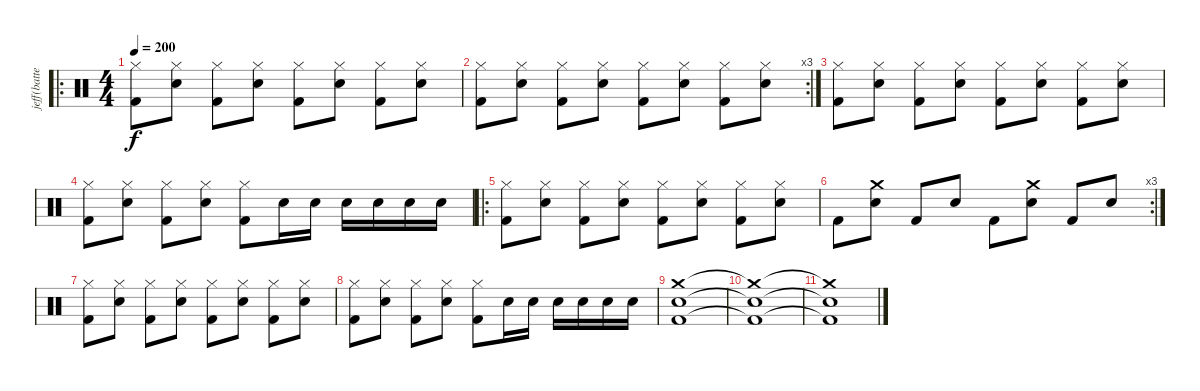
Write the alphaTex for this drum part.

\track ("jeff(batterie)" "jeff(batte") {instrument percussion}
\staff {score}
\articulation defaults
\ro
\ts (4 4)
\tempo 200
\clef neutral
\ks c
("Hi-Hat (closed)" "Kick (hit) 2").8{dy f} ("Hi-Hat (closed)" "Snare (hit) 2").8 ("Hi-Hat (closed)" "Kick (hit) 2").8 ("Hi-Hat (closed)" "Snare (hit) 2").8 ("Hi-Hat (closed)" "Kick (hit) 2").8 ("Hi-Hat (closed)" "Snare (hit) 2").8 ("Hi-Hat (closed)" "Kick (hit) 2").8 ("Hi-Hat (closed)" "Snare (hit) 2").8 |
\rc 3
("Hi-Hat (closed)" "Kick (hit) 2").8 ("Hi-Hat (closed)" "Snare (hit) 2").8 ("Hi-Hat (closed)" "Kick (hit) 2").8 ("Hi-Hat (closed)" "Snare (hit) 2").8 ("Hi-Hat (closed)" "Kick (hit) 2").8 ("Hi-Hat (closed)" "Snare (hit) 2").8 ("Hi-Hat (closed)" "Kick (hit) 2").8 ("Hi-Hat (closed)" "Snare (hit) 2").8 |
("Hi-Hat (closed)" "Kick (hit) 2").8 ("Hi-Hat (closed)" "Snare (hit) 2").8 ("Hi-Hat (closed)" "Kick (hit) 2").8 ("Hi-Hat (closed)" "Snare (hit) 2").8 ("Hi-Hat (closed)" "Kick (hit) 2").8 ("Hi-Hat (closed)" "Snare (hit) 2").8 ("Hi-Hat (closed)" "Kick (hit) 2").8 ("Hi-Hat (closed)" "Snare (hit) 2").8 |
("Hi-Hat (closed)" "Kick (hit) 2").8 ("Hi-Hat (closed)" "Snare (hit) 2").8 ("Hi-Hat (closed)" "Kick (hit) 2").8 ("Hi-Hat (closed)" "Snare (hit) 2").8 ("Hi-Hat (closed)" "Kick (hit) 2").8 "Snare (hit) 2".16 "Snare (hit) 2".16 "Snare (hit) 2".16 "Snare (hit) 2".16 "Snare (hit) 2".16 "Snare (hit) 2".16 |
\ro
("Hi-Hat (closed)" "Kick (hit) 2").8 ("Hi-Hat (closed)" "Snare (hit) 2").8 ("Hi-Hat (closed)" "Kick (hit) 2").8 ("Hi-Hat (closed)" "Snare (hit) 2").8 ("Hi-Hat (closed)" "Kick (hit) 2").8 ("Hi-Hat (closed)" "Snare (hit) 2").8 ("Hi-Hat (closed)" "Kick (hit) 2").8 ("Hi-Hat (closed)" "Snare (hit) 2").8 |
\rc 3 "Kick (hit) 2".8
("Crash medium (hit)" "Snare (hit) 2").8 "Kick (hit) 2".8 "Snare (hit) 2".8 "Kick (hit) 2".8 ("Crash medium (hit)" "Snare (hit) 2").8 "Kick (hit) 2".8 "Snare (hit) 2".8 |
("Hi-Hat (closed)" "Kick (hit) 2").8 ("Hi-Hat (closed)" "Snare (hit) 2").8 ("Hi-Hat (closed)" "Kick (hit) 2").8 ("Hi-Hat (closed)" "Snare (hit) 2").8 ("Hi-Hat (closed)" "Kick (hit) 2").8 ("Hi-Hat (closed)" "Snare (hit) 2").8 ("Hi-Hat (closed)" "Kick (hit) 2").8 ("Hi-Hat (closed)" "Snare (hit) 2").8 |
("Hi-Hat (closed)" "Kick (hit) 2").8 ("Hi-Hat (closed)" "Snare (hit) 2").8 ("Hi-Hat (closed)" "Kick (hit) 2").8 ("Hi-Hat (closed)" "Snare (hit) 2").8 ("Hi-Hat (closed)" "Kick (hit) 2").8 "Snare (hit) 2".16 "Snare (hit) 2".16 "Snare (hit) 2".16 "Snare (hit) 2".16 "Snare (hit) 2".16 "Snare (hit) 2".16 |
("Crash medium (hit)" "Snare (hit) 2" "Kick (hit) 2").1 |
("Crash medium (hit)"{t} "Snare (hit) 2"{t} "Kick (hit) 2"{t}).1 |
("Crash medium (hit)"{t} "Snare (hit) 2"{t} "Kick (hit) 2"{t}).1
